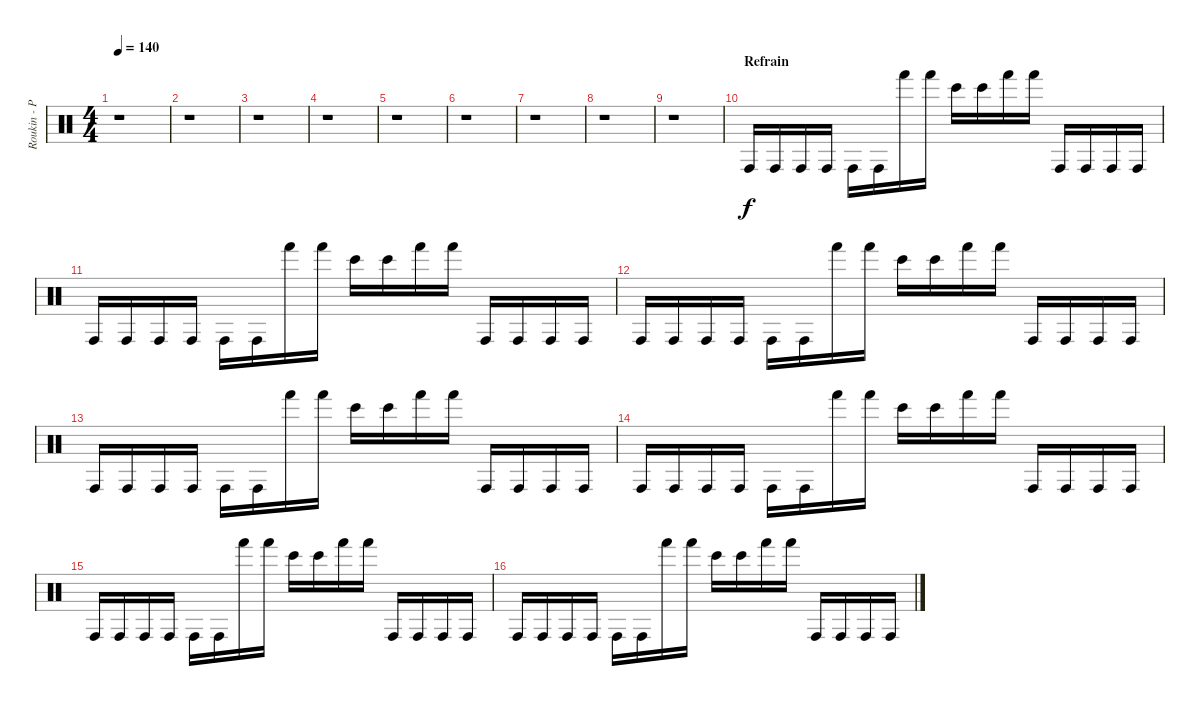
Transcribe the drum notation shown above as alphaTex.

\track ("Roukin - Percus" "Roukin - P") {instrument percussion}
\staff {score}
\articulation defaults
\ts (4 4)
\tempo 140
\clef neutral
\ks c
r.1{dy f} |
r.1 |
r.1 |
r.1 |
r.1 |
r.1 |
r.1 |
r.1 |
r.1 |
\section ("" "Refrain")
"Conga high (hit)".16 "Conga high (hit)".16 "Conga high (hit)".16 "Conga high (hit)".16 "Conga high (hit)".16 "Conga high (hit)".16 "Hand (hit)".16 "Hand (hit)".16 "Bongo High (hit)".16 "Bongo High (hit)".16 "Hand (hit)".16 "Hand (hit)".16 "Conga high (hit)".16 "Conga high (hit)".16 "Conga high (hit)".16 "Conga high (hit)".16 |
"Conga high (hit)".16 "Conga high (hit)".16 "Conga high (hit)".16 "Conga high (hit)".16 "Conga high (hit)".16 "Conga high (hit)".16 "Hand (hit)".16 "Hand (hit)".16 "Bongo High (hit)".16 "Bongo High (hit)".16 "Hand (hit)".16 "Hand (hit)".16 "Conga high (hit)".16 "Conga high (hit)".16 "Conga high (hit)".16 "Conga high (hit)".16 |
"Conga high (hit)".16 "Conga high (hit)".16 "Conga high (hit)".16 "Conga high (hit)".16 "Conga high (hit)".16 "Conga high (hit)".16 "Hand (hit)".16 "Hand (hit)".16 "Bongo High (hit)".16 "Bongo High (hit)".16 "Hand (hit)".16 "Hand (hit)".16 "Conga high (hit)".16 "Conga high (hit)".16 "Conga high (hit)".16 "Conga high (hit)".16 |
"Conga high (hit)".16 "Conga high (hit)".16 "Conga high (hit)".16 "Conga high (hit)".16 "Conga high (hit)".16 "Conga high (hit)".16 "Hand (hit)".16 "Hand (hit)".16 "Bongo High (hit)".16 "Bongo High (hit)".16 "Hand (hit)".16 "Hand (hit)".16 "Conga high (hit)".16 "Conga high (hit)".16 "Conga high (hit)".16 "Conga high (hit)".16 |
"Conga high (hit)".16 "Conga high (hit)".16 "Conga high (hit)".16 "Conga high (hit)".16 "Conga high (hit)".16 "Conga high (hit)".16 "Hand (hit)".16 "Hand (hit)".16 "Bongo High (hit)".16 "Bongo High (hit)".16 "Hand (hit)".16 "Hand (hit)".16 "Conga high (hit)".16 "Conga high (hit)".16 "Conga high (hit)".16 "Conga high (hit)".16 |
"Conga high (hit)".16 "Conga high (hit)".16 "Conga high (hit)".16 "Conga high (hit)".16 "Conga high (hit)".16 "Conga high (hit)".16 "Hand (hit)".16 "Hand (hit)".16 "Bongo High (hit)".16 "Bongo High (hit)".16 "Hand (hit)".16 "Hand (hit)".16 "Conga high (hit)".16 "Conga high (hit)".16 "Conga high (hit)".16 "Conga high (hit)".16 |
"Conga high (hit)".16 "Conga high (hit)".16 "Conga high (hit)".16 "Conga high (hit)".16 "Conga high (hit)".16 "Conga high (hit)".16 "Hand (hit)".16 "Hand (hit)".16 "Bongo High (hit)".16 "Bongo High (hit)".16 "Hand (hit)".16 "Hand (hit)".16 "Conga high (hit)".16 "Conga high (hit)".16 "Conga high (hit)".16 "Conga high (hit)".16
